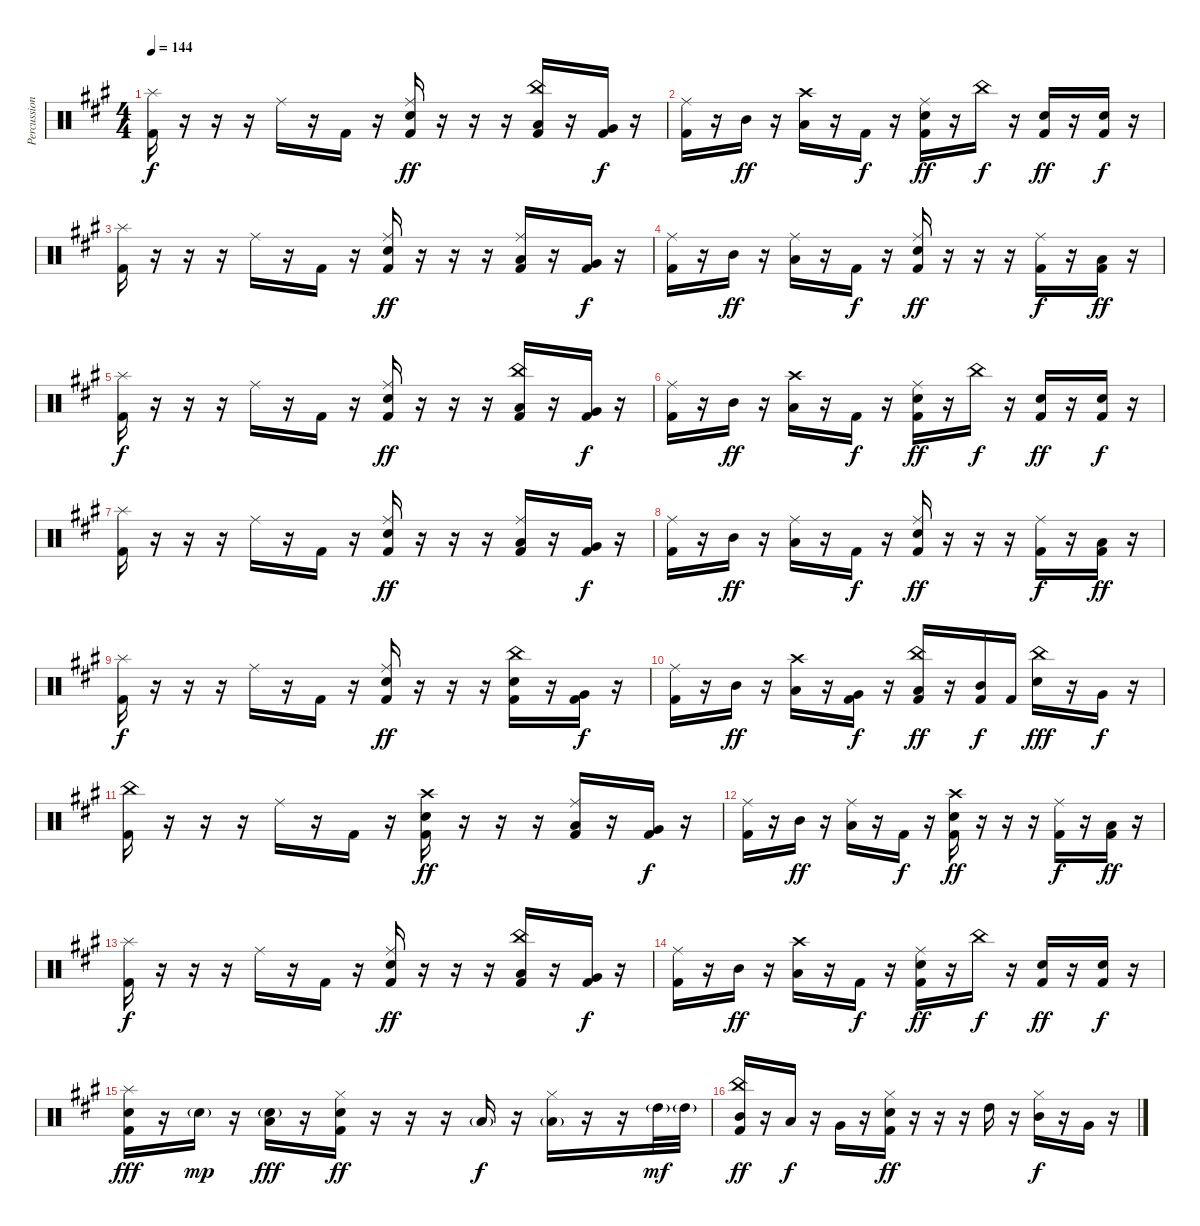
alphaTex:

\track ("Percussion" "Percussion") {instrument percussion}
\staff {score}
\articulation defaults
\ts (4 4)
\tempo 144
\clef neutral
\ks f#minor
("Splash (hit)" "Kick (hit) 2").16{dy f} r.16 r.16 r.16 "Ride (middle)".16 r.16 "Kick (hit) 2".16 r.16 ("Ride (middle)" "Snare (hit) 2" "Kick (hit) 2").16{dy ff} r.16 r.16 r.16 ("China (hit)" "Low Tom (hit)" "Kick (hit) 2").16 r.16 ("Very Low Tom (hit)" "Kick (hit) 2").16{dy f} r.16 |
("Ride (middle)" "Kick (hit) 2").16 r.16 "Mid Tom (hit)".16{dy ff} r.16 ("Crash high (hit)" "Low Tom (hit)").16 r.16 "Kick (hit) 2".16{dy f} r.16 ("Ride (middle)" "Snare (hit) 2" "Kick (hit) 2").16{dy ff} r.16 "China (hit)".16{dy f} r.16 ("Snare (hit) 2" "Kick (hit) 2").16{dy ff} r.16 ("Snare (hit) 2" "Kick (hit) 2").16{dy f} r.16 |
("Splash (hit)" "Kick (hit) 2").16 r.16 r.16 r.16 "Ride (middle)".16 r.16 "Kick (hit) 2".16 r.16 ("Ride (middle)" "Snare (hit) 2" "Kick (hit) 2").16{dy ff} r.16 r.16 r.16 ("Ride (middle)" "Low Tom (hit)" "Kick (hit) 2").16 r.16 ("Very Low Tom (hit)" "Kick (hit) 2").16{dy f} r.16 |
("Ride (middle)" "Kick (hit) 2").16 r.16 "Mid Tom (hit)".16{dy ff} r.16 ("Ride (middle)" "Low Tom (hit)").16 r.16 "Kick (hit) 2".16{dy f} r.16 ("Ride (middle)" "Snare (hit) 2" "Kick (hit) 2").16{dy ff} r.16 r.16 r.16 ("Ride (middle)" "Kick (hit) 2").16{dy f} r.16 ("Low Floor Tom (hit)" "Kick (hit) 2").16{dy ff} r.16 |
("Splash (hit)" "Kick (hit) 2").16{dy f} r.16 r.16 r.16 "Ride (middle)".16 r.16 "Kick (hit) 2".16 r.16 ("Ride (middle)" "Snare (hit) 2" "Kick (hit) 2").16{dy ff} r.16 r.16 r.16 ("China (hit)" "Low Tom (hit)" "Kick (hit) 2").16 r.16 ("Very Low Tom (hit)" "Kick (hit) 2").16{dy f} r.16 |
("Ride (middle)" "Kick (hit) 2").16 r.16 "Mid Tom (hit)".16{dy ff} r.16 ("Crash high (hit)" "Low Tom (hit)").16 r.16 "Kick (hit) 2".16{dy f} r.16 ("Ride (middle)" "Snare (hit) 2" "Kick (hit) 2").16{dy ff} r.16 "China (hit)".16{dy f} r.16 ("Snare (hit) 2" "Kick (hit) 2").16{dy ff} r.16 ("Snare (hit) 2" "Kick (hit) 2").16{dy f} r.16 |
("Splash (hit)" "Kick (hit) 2").16 r.16 r.16 r.16 "Ride (middle)".16 r.16 "Kick (hit) 2".16 r.16 ("Ride (middle)" "Snare (hit) 2" "Kick (hit) 2").16{dy ff} r.16 r.16 r.16 ("Ride (middle)" "Low Tom (hit)" "Kick (hit) 2").16 r.16 ("Very Low Tom (hit)" "Kick (hit) 2").16{dy f} r.16 |
("Ride (middle)" "Kick (hit) 2").16 r.16 "Mid Tom (hit)".16{dy ff} r.16 ("Ride (middle)" "Low Tom (hit)").16 r.16 "Kick (hit) 2".16{dy f} r.16 ("Ride (middle)" "Snare (hit) 2" "Kick (hit) 2").16{dy ff} r.16 r.16 r.16 ("Ride (middle)" "Kick (hit) 2").16{dy f} r.16 ("Low Floor Tom (hit)" "Kick (hit) 2").16{dy ff} r.16 |
("Splash (hit)" "Kick (hit) 2").16{dy f} r.16 r.16 r.16 "Ride (middle)".16 r.16 "Kick (hit) 2".16 r.16 ("Ride (middle)" "Snare (hit) 2" "Kick (hit) 2").16{dy ff} r.16 r.16 r.16 ("China (hit)" "Snare (hit) 2" "Kick (hit) 2").16 r.16 ("Very Low Tom (hit)" "Kick (hit) 2").16{dy f} r.16 |
("Ride (middle)" "Kick (hit) 2").16 r.16 "Mid Tom (hit)".16{dy ff} r.16 ("Crash high (hit)" "Low Tom (hit)").16 r.16 ("Very Low Tom (hit)" "Kick (hit) 2").16{dy f} r.16 ("China (hit)" "Low Floor Tom (hit)" "Kick (hit) 2").16{dy ff} r.16 ("Mid Tom (hit)" "Kick (hit) 2").16{dy f} "Kick (hit) 2".16 ("China (hit)" "Snare (hit) 2").16{dy fff} r.16 "Very Low Tom (hit)".16{dy f} r.16 |
("China (hit)" "Kick (hit) 2").16 r.16 r.16 r.16 "Ride (middle)".16 r.16 "Kick (hit) 2".16 r.16 ("Crash high (hit)" "Snare (hit) 2" "Kick (hit) 2").16{dy ff} r.16 r.16 r.16 ("Ride (middle)" "Low Tom (hit)" "Kick (hit) 2").16 r.16 ("Very Low Tom (hit)" "Kick (hit) 2").16{dy f} r.16 |
("Ride (middle)" "Kick (hit) 2").16 r.16 "Mid Tom (hit)".16{dy ff} r.16 ("Ride (middle)" "Low Tom (hit)").16 r.16 "Kick (hit) 2".16{dy f} r.16 ("Crash high (hit)" "Snare (hit) 2" "Kick (hit) 2").16{dy ff} r.16 r.16 r.16 ("Ride (middle)" "Kick (hit) 2").16{dy f} r.16 ("Low Floor Tom (hit)" "Kick (hit) 2").16{dy ff} r.16 |
("Splash (hit)" "Kick (hit) 2").16{dy f} r.16 r.16 r.16 "Ride (middle)".16 r.16 "Kick (hit) 2".16 r.16 ("Ride (middle)" "Snare (hit) 2" "Kick (hit) 2").16{dy ff} r.16 r.16 r.16 ("China (hit)" "Low Tom (hit)" "Kick (hit) 2").16 r.16 ("Very Low Tom (hit)" "Kick (hit) 2").16{dy f} r.16 |
("Ride (middle)" "Kick (hit) 2").16 r.16 "Mid Tom (hit)".16{dy ff} r.16 ("Crash high (hit)" "Low Tom (hit)").16 r.16 "Kick (hit) 2".16{dy f} r.16 ("Ride (middle)" "Snare (hit) 2" "Kick (hit) 2").16{dy ff} r.16 "China (hit)".16{dy f} r.16 ("Snare (hit) 2" "Kick (hit) 2").16{dy ff} r.16 ("Snare (hit) 2" "Kick (hit) 2").16{dy f} r.16 |
("Splash (hit)" "Snare (hit) 2" "Kick (hit) 2").16{dy fff} r.16 "Snare (hit) 2"{g}.16{dy mp} r.16 ("Snare (hit) 2"{g} "Low Floor Tom (hit)").16{dy fff} r.16 ("Hi-Hat (closed)" "Snare (hit) 2" "Kick (hit) 2").16{dy ff} r.16 r.16 r.16 "Low Floor Tom (hit)"{g}.16{dy f} r.16 ("Hi-Hat (closed)" "Low Floor Tom (hit)"{g}).16 r.16 r.16 "High Tom (hit)"{g}.32{dy mf} "High Tom (hit)"{g}.32 |
("China (hit)" "Mid Tom (hit)" "Kick (hit) 2").16{dy ff} r.16 "Low Tom (hit)".16{dy f} r.16 "Very Low Tom (hit)".16 r.16 ("Hi-Hat (closed)" "Snare (hit) 2" "Kick (hit) 2").16{dy ff} r.16 r.16 r.16 "High Tom (hit)".16 r.16 ("Hi-Hat (closed)" "Mid Tom (hit)").16{dy f} r.16 "Very Low Tom (hit)".16 r.16
